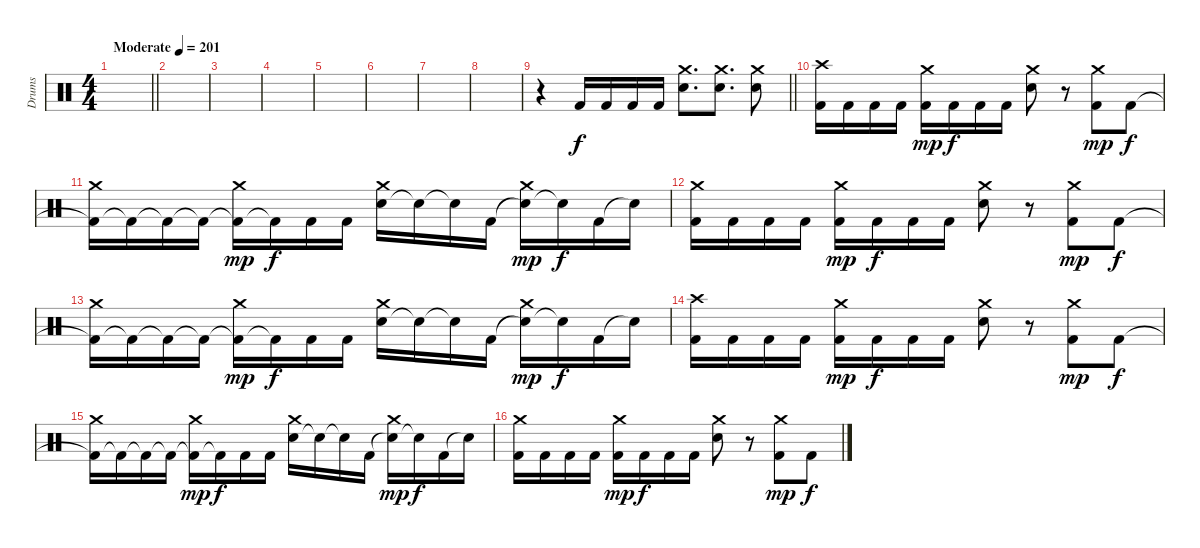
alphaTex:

\track ("Drums" "Drums") {instrument percussion}
\staff {score}
\articulation defaults
\ts (4 4)
\tempo (201 "Moderate")
\clef neutral
\barLineRight lightlight
\ks c
|
\section ("" " ")
|
|
|
|
|
|
|
\barLineRight lightlight
r.4 "Kick (hit) 2".16 "Kick (hit) 2".16 "Kick (hit) 2".16 "Kick (hit) 2".16 ("Snare (hit) 2" "Crash medium (hit)").8{d} ("Snare (hit) 2" "Crash medium (hit)").8{d} ("Snare (hit) 2" "Crash medium (hit)").8 |
\section ("" " ")
("Kick (hit) 2" "Crash high (hit)").16 "Kick (hit) 2".16 "Kick (hit) 2".16 "Kick (hit) 2".16 ("Kick (hit) 2" "Crash medium (hit)").16{dy mp} "Kick (hit) 2".16{dy f} "Kick (hit) 2".16 "Kick (hit) 2".16 ("Snare (hit) 2" "Crash medium (hit)").8 r.8 ("Kick (hit) 2" "Crash medium (hit)").8{dy mp} "Kick (hit) 2".8{dy f} |
("Kick (hit) 2"{t} "Crash medium (hit)").16 "Kick (hit) 2"{t}.16 "Kick (hit) 2"{t}.16 "Kick (hit) 2"{t}.16 ("Kick (hit) 2"{t} "Crash medium (hit)").16{dy mp} "Kick (hit) 2"{t}.16{dy f} "Kick (hit) 2".16 "Kick (hit) 2".16 ("Snare (hit) 2" "Crash medium (hit)").16 "Snare (hit)"{t}.16 "Snare (hit)"{t}.16 "Kick (hit) 2".16 ("Snare (hit)"{t} "Crash medium (hit)").16{dy mp} "Snare (hit)"{t}.16{dy f} "Kick (hit) 2".16 "Snare (hit)"{t}.16 |
("Kick (hit) 2" "Crash medium (hit)").16 "Kick (hit) 2".16 "Kick (hit) 2".16 "Kick (hit) 2".16 ("Kick (hit) 2" "Crash medium (hit)").16{dy mp} "Kick (hit) 2".16{dy f} "Kick (hit) 2".16 "Kick (hit) 2".16 ("Snare (hit) 2" "Crash medium (hit)").8 r.8 ("Kick (hit) 2" "Crash medium (hit)").8{dy mp} "Kick (hit) 2".8{dy f} |
("Kick (hit) 2"{t} "Crash medium (hit)").16 "Kick (hit) 2"{t}.16 "Kick (hit) 2"{t}.16 "Kick (hit) 2"{t}.16 ("Kick (hit) 2"{t} "Crash medium (hit)").16{dy mp} "Kick (hit) 2"{t}.16{dy f} "Kick (hit) 2".16 "Kick (hit) 2".16 ("Snare (hit) 2" "Crash medium (hit)").16 "Snare (hit)"{t}.16 "Snare (hit)"{t}.16 "Kick (hit) 2".16 ("Snare (hit)"{t} "Crash medium (hit)").16{dy mp} "Snare (hit)"{t}.16{dy f} "Kick (hit) 2".16 "Snare (hit)"{t}.16 |
("Kick (hit) 2" "Crash high (hit)").16 "Kick (hit) 2".16 "Kick (hit) 2".16 "Kick (hit) 2".16 ("Kick (hit) 2" "Crash medium (hit)").16{dy mp} "Kick (hit) 2".16{dy f} "Kick (hit) 2".16 "Kick (hit) 2".16 ("Snare (hit) 2" "Crash medium (hit)").8 r.8 ("Kick (hit) 2" "Crash medium (hit)").8{dy mp} "Kick (hit) 2".8{dy f} |
("Kick (hit) 2"{t} "Crash medium (hit)").16 "Kick (hit) 2"{t}.16 "Kick (hit) 2"{t}.16 "Kick (hit) 2"{t}.16 ("Kick (hit) 2"{t} "Crash medium (hit)").16{dy mp} "Kick (hit) 2"{t}.16{dy f} "Kick (hit) 2".16 "Kick (hit) 2".16 ("Snare (hit) 2" "Crash medium (hit)").16 "Snare (hit)"{t}.16 "Snare (hit)"{t}.16 "Kick (hit) 2".16 ("Snare (hit)"{t} "Crash medium (hit)").16{dy mp} "Snare (hit)"{t}.16{dy f} "Kick (hit) 2".16 "Snare (hit)"{t}.16 |
("Kick (hit) 2" "Crash medium (hit)").16 "Kick (hit) 2".16 "Kick (hit) 2".16 "Kick (hit) 2".16 ("Kick (hit) 2" "Crash medium (hit)").16{dy mp} "Kick (hit) 2".16{dy f} "Kick (hit) 2".16 "Kick (hit) 2".16 ("Snare (hit) 2" "Crash medium (hit)").8 r.8 ("Kick (hit) 2" "Crash medium (hit)").8{dy mp} "Kick (hit) 2".8{dy f}
